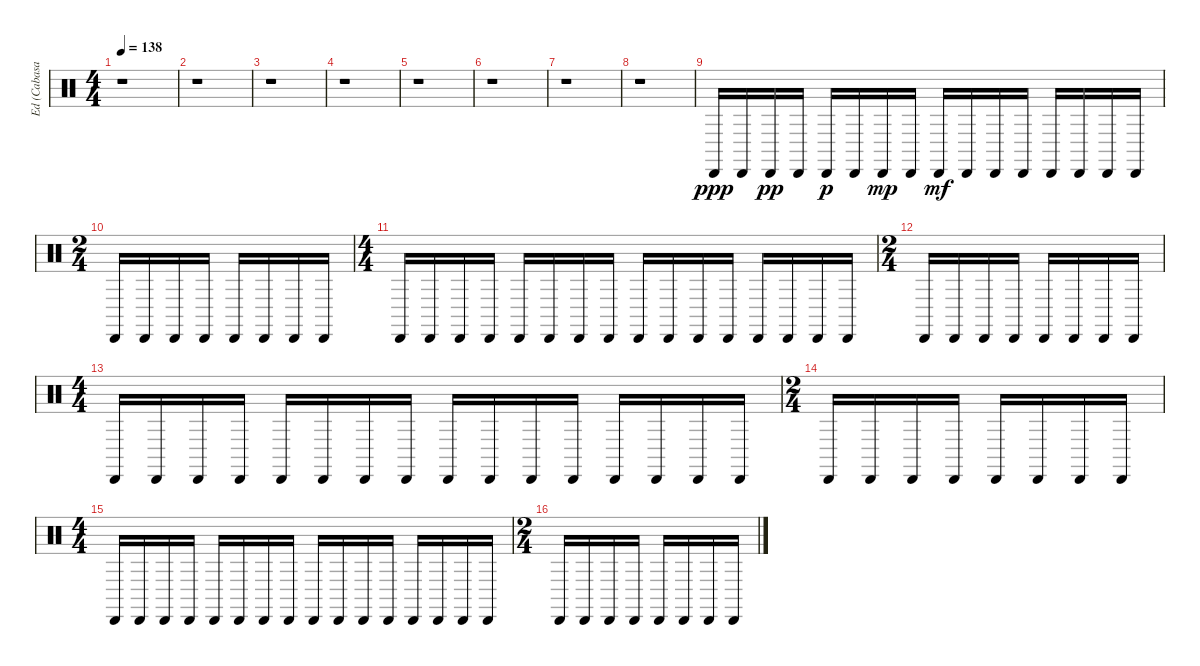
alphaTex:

\track ("Ed (Cabasa)" "Ed (Cabasa") {instrument percussion}
\staff {score}
\articulation defaults
\ts (4 4)
\tempo 138
\clef neutral
\ks c
r.1{dy ppp} |
r.1 |
r.1 |
r.1 |
r.1 |
r.1 |
r.1 |
r.1 |
"Cabasa (hit)".16 "Cabasa (hit)".16 "Cabasa (hit)".16{dy pp} "Cabasa (hit)".16 "Cabasa (hit)".16{dy p} "Cabasa (hit)".16 "Cabasa (hit)".16{dy mp} "Cabasa (hit)".16 "Cabasa (hit)".16{dy mf} "Cabasa (hit)".16 "Cabasa (hit)".16 "Cabasa (hit)".16 "Cabasa (hit)".16 "Cabasa (hit)".16 "Cabasa (hit)".16 "Cabasa (hit)".16 |
\ts (2 4)
"Cabasa (hit)".16 "Cabasa (hit)".16 "Cabasa (hit)".16 "Cabasa (hit)".16 "Cabasa (hit)".16 "Cabasa (hit)".16 "Cabasa (hit)".16 "Cabasa (hit)".16 |
\ts (4 4)
"Cabasa (hit)".16 "Cabasa (hit)".16 "Cabasa (hit)".16 "Cabasa (hit)".16 "Cabasa (hit)".16 "Cabasa (hit)".16 "Cabasa (hit)".16 "Cabasa (hit)".16 "Cabasa (hit)".16 "Cabasa (hit)".16 "Cabasa (hit)".16 "Cabasa (hit)".16 "Cabasa (hit)".16 "Cabasa (hit)".16 "Cabasa (hit)".16 "Cabasa (hit)".16 |
\ts (2 4)
"Cabasa (hit)".16 "Cabasa (hit)".16 "Cabasa (hit)".16 "Cabasa (hit)".16 "Cabasa (hit)".16 "Cabasa (hit)".16 "Cabasa (hit)".16 "Cabasa (hit)".16 |
\ts (4 4)
"Cabasa (hit)".16 "Cabasa (hit)".16 "Cabasa (hit)".16 "Cabasa (hit)".16 "Cabasa (hit)".16 "Cabasa (hit)".16 "Cabasa (hit)".16 "Cabasa (hit)".16 "Cabasa (hit)".16 "Cabasa (hit)".16 "Cabasa (hit)".16 "Cabasa (hit)".16 "Cabasa (hit)".16 "Cabasa (hit)".16 "Cabasa (hit)".16 "Cabasa (hit)".16 |
\ts (2 4)
"Cabasa (hit)".16 "Cabasa (hit)".16 "Cabasa (hit)".16 "Cabasa (hit)".16 "Cabasa (hit)".16 "Cabasa (hit)".16 "Cabasa (hit)".16 "Cabasa (hit)".16 |
\ts (4 4)
"Cabasa (hit)".16 "Cabasa (hit)".16 "Cabasa (hit)".16 "Cabasa (hit)".16 "Cabasa (hit)".16 "Cabasa (hit)".16 "Cabasa (hit)".16 "Cabasa (hit)".16 "Cabasa (hit)".16 "Cabasa (hit)".16 "Cabasa (hit)".16 "Cabasa (hit)".16 "Cabasa (hit)".16 "Cabasa (hit)".16 "Cabasa (hit)".16 "Cabasa (hit)".16 |
\ts (2 4)
"Cabasa (hit)".16 "Cabasa (hit)".16 "Cabasa (hit)".16 "Cabasa (hit)".16 "Cabasa (hit)".16 "Cabasa (hit)".16 "Cabasa (hit)".16 "Cabasa (hit)".16
